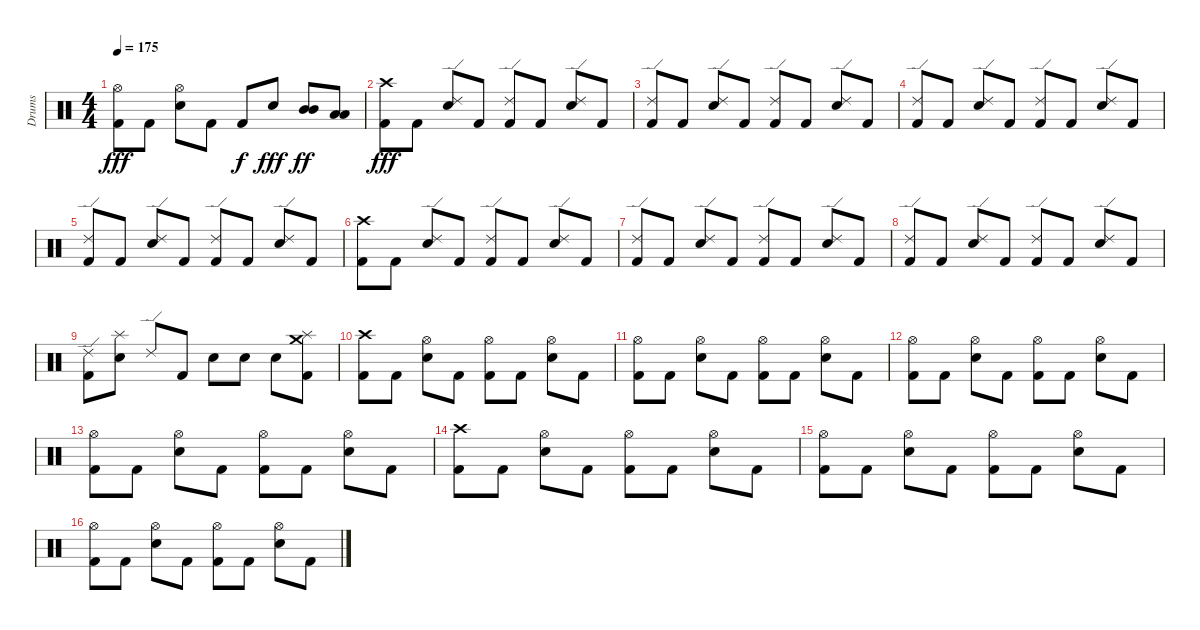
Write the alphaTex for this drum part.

\track ("Drums" "Drums") {instrument percussion}
\staff {score}
\articulation defaults
\ts (4 4)
\tempo 175
\clef neutral
\ks c
("Kick (hit) 2" "Hi-Hat (open)").8{dy fff} "Kick (hit) 2".8 ("Electric Snare (hit)" "Hi-Hat (open)").8 "Kick (hit) 2".8 "Kick (hit) 2".8{dy f} "Electric Snare (hit)".8{dy fff} ("Mid Tom (hit)" "Mid Tom (hit)").8{dy ff} ("Low Tom (hit)" "Low Tom (hit)").8 |
("Kick (hit) 2" "Crash high (hit)").8{dy fff} "Kick (hit) 2".8 ("Electric Snare (hit)" "Ride (edge) 2").8 "Kick (hit) 2".8 ("Kick (hit) 2" "Ride (edge) 2").8 "Kick (hit) 2".8 ("Electric Snare (hit)" "Ride (edge) 2").8 "Kick (hit) 2".8 |
("Kick (hit) 2" "Ride (edge) 2").8 "Kick (hit) 2".8 ("Electric Snare (hit)" "Ride (edge) 2").8 "Kick (hit) 2".8 ("Kick (hit) 2" "Ride (edge) 2").8 "Kick (hit) 2".8 ("Electric Snare (hit)" "Ride (edge) 2").8 "Kick (hit) 2".8 |
("Kick (hit) 2" "Ride (edge) 2").8 "Kick (hit) 2".8 ("Electric Snare (hit)" "Ride (edge) 2").8 "Kick (hit) 2".8 ("Kick (hit) 2" "Ride (edge) 2").8 "Kick (hit) 2".8 ("Electric Snare (hit)" "Ride (edge) 2").8 "Kick (hit) 2".8 |
("Kick (hit) 2" "Ride (edge) 2").8 "Kick (hit) 2".8 ("Electric Snare (hit)" "Ride (edge) 2").8 "Kick (hit) 2".8 ("Kick (hit) 2" "Ride (edge) 2").8 "Kick (hit) 2".8 ("Electric Snare (hit)" "Ride (edge) 2").8 "Kick (hit) 2".8 |
("Kick (hit) 2" "Crash high (hit)").8 "Kick (hit) 2".8 ("Electric Snare (hit)" "Ride (edge) 2").8 "Kick (hit) 2".8 ("Kick (hit) 2" "Ride (edge) 2").8 "Kick (hit) 2".8 ("Electric Snare (hit)" "Ride (edge) 2").8 "Kick (hit) 2".8 |
("Kick (hit) 2" "Ride (edge) 2").8 "Kick (hit) 2".8 ("Electric Snare (hit)" "Ride (edge) 2").8 "Kick (hit) 2".8 ("Kick (hit) 2" "Ride (edge) 2").8 "Kick (hit) 2".8 ("Electric Snare (hit)" "Ride (edge) 2").8 "Kick (hit) 2".8 |
("Kick (hit) 2" "Ride (edge) 2").8 "Kick (hit) 2".8 ("Electric Snare (hit)" "Ride (edge) 2").8 "Kick (hit) 2".8 ("Kick (hit) 2" "Ride (edge) 2").8 "Kick (hit) 2".8 ("Electric Snare (hit)" "Ride (edge) 2").8 "Kick (hit) 2".8 |
("Kick (hit) 2" "Ride (edge) 2").8 ("Electric Snare (hit)" "Splash (hit)").8 "Ride (edge) 2".8 "Kick (hit) 2".8 "Electric Snare (hit)".8 "Electric Snare (hit)".8 "Electric Snare (hit)".8 ("Kick (hit) 2" "Splash (hit)" "Crash medium (hit)").8 |
("Kick (hit) 2" "Crash high (hit)").8 "Kick (hit) 2".8 ("Electric Snare (hit)" "Hi-Hat (open)").8 "Kick (hit) 2".8 ("Kick (hit) 2" "Hi-Hat (open)").8 "Kick (hit) 2".8 ("Electric Snare (hit)" "Hi-Hat (open)").8 "Kick (hit) 2".8 |
("Kick (hit) 2" "Hi-Hat (open)").8 "Kick (hit) 2".8 ("Electric Snare (hit)" "Hi-Hat (open)").8 "Kick (hit) 2".8 ("Kick (hit) 2" "Hi-Hat (open)").8 "Kick (hit) 2".8 ("Electric Snare (hit)" "Hi-Hat (open)").8 "Kick (hit) 2".8 |
("Kick (hit) 2" "Hi-Hat (open)").8 "Kick (hit) 2".8 ("Electric Snare (hit)" "Hi-Hat (open)").8 "Kick (hit) 2".8 ("Kick (hit) 2" "Hi-Hat (open)").8 "Kick (hit) 2".8 ("Electric Snare (hit)" "Hi-Hat (open)").8 "Kick (hit) 2".8 |
("Kick (hit) 2" "Hi-Hat (open)").8 "Kick (hit) 2".8 ("Electric Snare (hit)" "Hi-Hat (open)").8 "Kick (hit) 2".8 ("Kick (hit) 2" "Hi-Hat (open)").8 "Kick (hit) 2".8 ("Electric Snare (hit)" "Hi-Hat (open)").8 "Kick (hit) 2".8 |
("Kick (hit) 2" "Crash high (hit)").8 "Kick (hit) 2".8 ("Electric Snare (hit)" "Hi-Hat (open)").8 "Kick (hit) 2".8 ("Kick (hit) 2" "Hi-Hat (open)").8 "Kick (hit) 2".8 ("Electric Snare (hit)" "Hi-Hat (open)").8 "Kick (hit) 2".8 |
("Kick (hit) 2" "Hi-Hat (open)").8 "Kick (hit) 2".8 ("Electric Snare (hit)" "Hi-Hat (open)").8 "Kick (hit) 2".8 ("Kick (hit) 2" "Hi-Hat (open)").8 "Kick (hit) 2".8 ("Electric Snare (hit)" "Hi-Hat (open)").8 "Kick (hit) 2".8 |
("Kick (hit) 2" "Hi-Hat (open)").8 "Kick (hit) 2".8 ("Electric Snare (hit)" "Hi-Hat (open)").8 "Kick (hit) 2".8 ("Kick (hit) 2" "Hi-Hat (open)").8 "Kick (hit) 2".8 ("Electric Snare (hit)" "Hi-Hat (open)").8 "Kick (hit) 2".8
